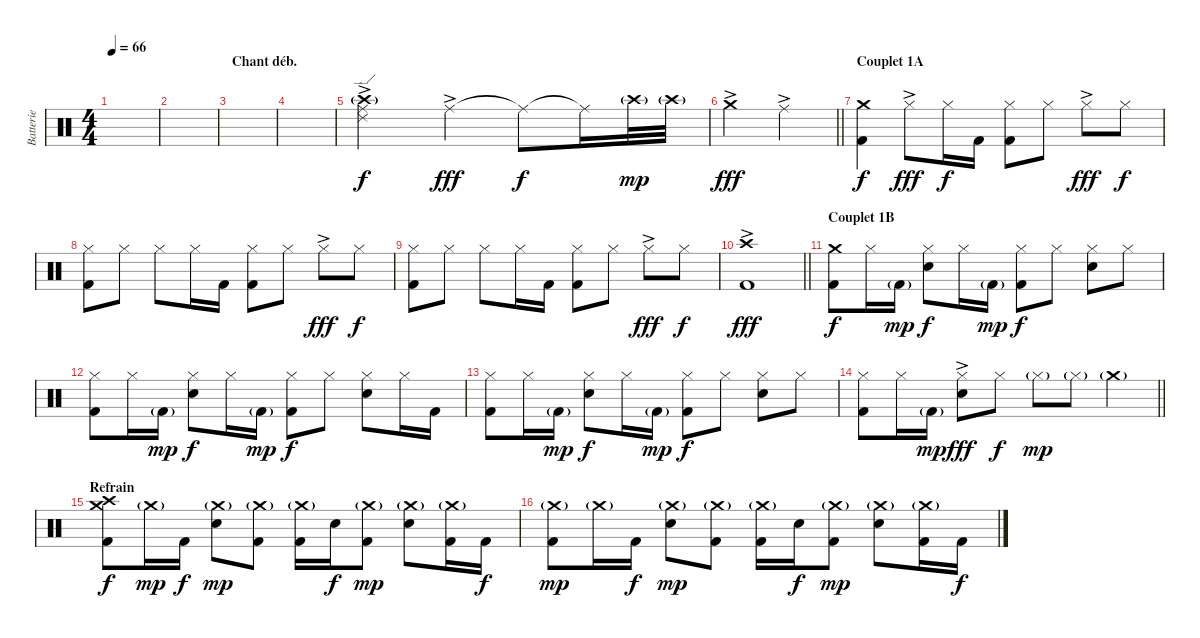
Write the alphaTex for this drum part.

\track ("Batterie" "Batterie") {instrument percussion}
\staff {score}
\articulation defaults
\ts (4 4)
\tempo 66
\clef neutral
\ks c
|
|
\section ("" "Chant déb.")
|
|
("Ride (edge) 2"{ac} "Ride (middle)"{ac} "Crash high (hit)"{g}).2 "Ride (middle)"{ac}.4{dy fff} "Ride (middle)"{t}.8{dy f} "Ride (middle)"{t}.16 "Crash high (hit)"{g}.32{dy mp} "Crash high (hit)"{g}.32 |
\barLineRight lightlight "Crash medium (hit)"{ac}.2{dy fff} "Ride (middle)"{ac}.2
|
\section ("" "Couplet 1A")
("Crash medium (hit)" "Kick (hit) 2").4{dy f} "Hi-Hat (closed)"{ac}.8{dy fff} "Hi-Hat (closed)".16{dy f} "Kick (hit) 2".16 ("Hi-Hat (closed)" "Kick (hit) 2").8 "Hi-Hat (closed)".8 "Hi-Hat (closed)"{ac}.8{dy fff} "Hi-Hat (closed)".8{dy f} |
("Hi-Hat (closed)" "Kick (hit) 2").8 "Hi-Hat (closed)".8 "Hi-Hat (closed)".8 "Hi-Hat (closed)".16 "Kick (hit) 2".16 ("Hi-Hat (closed)" "Kick (hit) 2").8 "Hi-Hat (closed)".8 "Hi-Hat (closed)"{ac}.8{dy fff} "Hi-Hat (closed)".8{dy f} |
("Hi-Hat (closed)" "Kick (hit) 2").8 "Hi-Hat (closed)".8 "Hi-Hat (closed)".8 "Hi-Hat (closed)".16 "Kick (hit) 2".16 ("Hi-Hat (closed)" "Kick (hit) 2").8 "Hi-Hat (closed)".8 "Hi-Hat (closed)"{ac}.8{dy fff} "Hi-Hat (closed)".8{dy f} |
\barLineRight lightlight
("Crash high (hit)"{ac} "Kick (hit) 2").1{dy fff} |
\section ("" "Couplet 1B")
("Crash medium (hit)" "Kick (hit) 2").8{dy f} "Hi-Hat (closed)".16 "Kick (hit) 2"{g}.16{dy mp} ("Hi-Hat (closed)" "Electric Snare (hit)").8{dy f} "Hi-Hat (closed)".16 "Kick (hit) 2"{g}.16{dy mp} ("Hi-Hat (closed)" "Kick (hit) 2").8{dy f} "Hi-Hat (closed)".8 ("Hi-Hat (closed)" "Electric Snare (hit)").8 "Hi-Hat (closed)".8 |
("Hi-Hat (closed)" "Kick (hit) 2").8 "Hi-Hat (closed)".16 "Kick (hit) 2"{g}.16{dy mp} ("Hi-Hat (closed)" "Electric Snare (hit)").8{dy f} "Hi-Hat (closed)".16 "Kick (hit) 2"{g}.16{dy mp} ("Hi-Hat (closed)" "Kick (hit) 2").8{dy f} "Hi-Hat (closed)".8 ("Hi-Hat (closed)" "Electric Snare (hit)").8 "Hi-Hat (closed)".16 "Kick (hit) 2".16 |
("Hi-Hat (closed)" "Kick (hit) 2").8 "Hi-Hat (closed)".16 "Kick (hit) 2"{g}.16{dy mp} ("Hi-Hat (closed)" "Electric Snare (hit)").8{dy f} "Hi-Hat (closed)".16 "Kick (hit) 2"{g}.16{dy mp} ("Hi-Hat (closed)" "Kick (hit) 2").8{dy f} "Hi-Hat (closed)".8 ("Hi-Hat (closed)" "Electric Snare (hit)").8 "Hi-Hat (closed)".8 |
\barLineRight lightlight
("Hi-Hat (closed)" "Kick (hit) 2").8 "Hi-Hat (closed)".16 "Kick (hit) 2"{g}.16{dy mp} ("Hi-Hat (closed)"{ac} "Electric Snare (hit)").8{dy fff} "Hi-Hat (closed)".8{dy f} "Hi-Hat (closed)"{g}.8{dy mp} "Hi-Hat (closed)"{g}.8 "Crash medium (hit)"{g}.4 |
\section ("" "Refrain")
("Crash medium (hit)" "Crash high (hit)" "Kick (hit) 2").8{dy f} "Crash medium (hit)"{g}.16{dy mp} "Kick (hit) 2".16{dy f} ("Crash medium (hit)"{g} "Electric Snare (hit)").8{dy mp} ("Crash medium (hit)"{g} "Kick (hit) 2").8 ("Crash medium (hit)"{g} "Kick (hit) 2").16 "Electric Snare (hit)".16{dy f} ("Crash medium (hit)"{g} "Kick (hit) 2").8{dy mp} ("Crash medium (hit)"{g} "Electric Snare (hit)").8 ("Crash medium (hit)"{g} "Kick (hit) 2").16 "Kick (hit) 2".16{dy f} |
("Crash medium (hit)"{g} "Kick (hit) 2").8{dy mp} "Crash medium (hit)"{g}.16 "Kick (hit) 2".16{dy f} ("Crash medium (hit)"{g} "Electric Snare (hit)").8{dy mp} ("Crash medium (hit)"{g} "Kick (hit) 2").8 ("Crash medium (hit)"{g} "Kick (hit) 2").16 "Electric Snare (hit)".16{dy f} ("Crash medium (hit)"{g} "Kick (hit) 2").8{dy mp} ("Crash medium (hit)"{g} "Electric Snare (hit)").8 ("Crash medium (hit)"{g} "Kick (hit) 2").16 "Kick (hit) 2".16{dy f}
